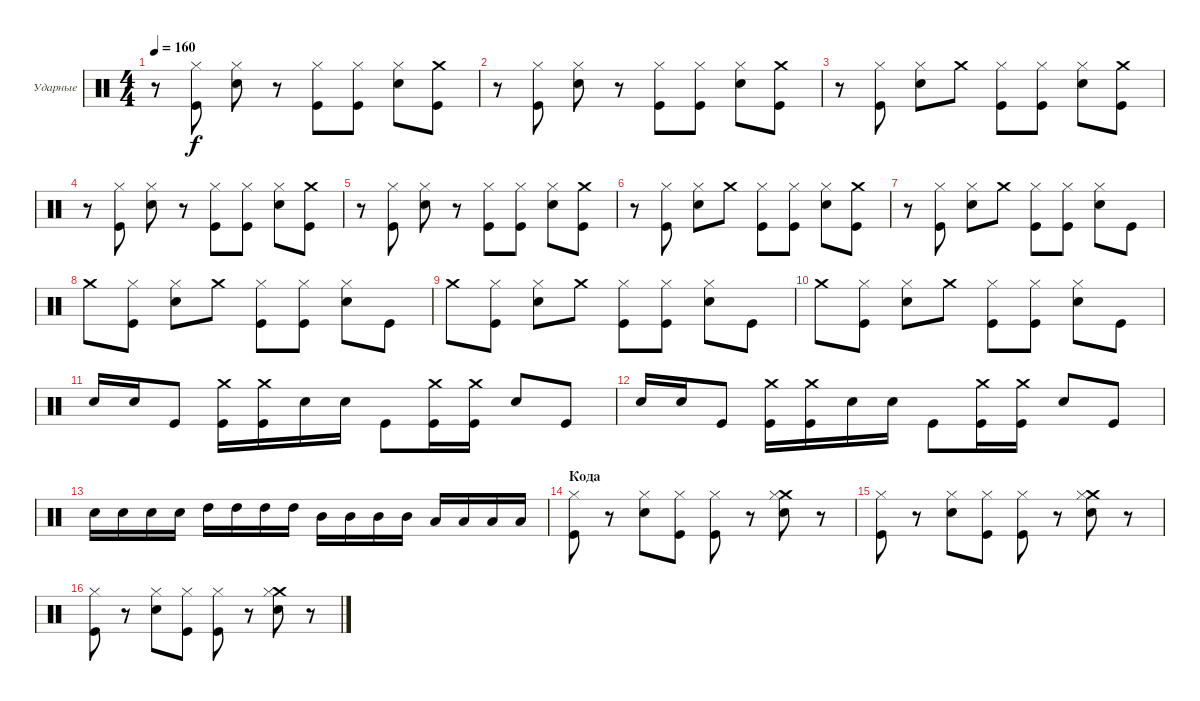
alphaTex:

\bracketExtendMode groupsimilarinstruments
\firstSystemTrackNameOrientation horizontal
\otherSystemsTrackNameOrientation horizontal
\track ("Александр Львов" "Ударные") {instrument percussion}
\staff {score}
\articulation defaults
\ts (4 4)
\tempo 160
\clef neutral
\ks c
r.8{dy f} ("Kick (hit)" "Hi-Hat (closed)").8 ("Snare (hit) 2" "Hi-Hat (closed)").8 r.8 ("Kick (hit)" "Hi-Hat (closed)").8 ("Kick (hit)" "Hi-Hat (closed)").8 ("Snare (hit) 2" "Hi-Hat (closed)").8 ("Kick (hit)" "Crash medium (hit)").8 |
r.8 ("Kick (hit)" "Hi-Hat (closed)").8 ("Snare (hit) 2" "Hi-Hat (closed)").8 r.8 ("Kick (hit)" "Hi-Hat (closed)").8 ("Kick (hit)" "Hi-Hat (closed)").8 ("Snare (hit) 2" "Hi-Hat (closed)").8 ("Kick (hit)" "Crash medium (hit)").8 |
r.8 ("Kick (hit)" "Hi-Hat (closed)").8 ("Snare (hit) 2" "Hi-Hat (closed)").8 "Crash medium (hit)".8 ("Kick (hit)" "Hi-Hat (closed)").8 ("Kick (hit)" "Hi-Hat (closed)").8 ("Snare (hit) 2" "Hi-Hat (closed)").8 ("Kick (hit)" "Crash medium (hit)").8 |
r.8 ("Kick (hit)" "Hi-Hat (closed)").8 ("Snare (hit) 2" "Hi-Hat (closed)").8 r.8 ("Kick (hit)" "Hi-Hat (closed)").8 ("Kick (hit)" "Hi-Hat (closed)").8 ("Snare (hit) 2" "Hi-Hat (closed)").8 ("Kick (hit)" "Crash medium (hit)").8 |
r.8 ("Kick (hit)" "Hi-Hat (closed)").8 ("Snare (hit) 2" "Hi-Hat (closed)").8 r.8 ("Kick (hit)" "Hi-Hat (closed)").8 ("Kick (hit)" "Hi-Hat (closed)").8 ("Snare (hit) 2" "Hi-Hat (closed)").8 ("Kick (hit)" "Crash medium (hit)").8 |
r.8 ("Kick (hit)" "Hi-Hat (closed)").8 ("Snare (hit) 2" "Hi-Hat (closed)").8 "Crash medium (hit)".8 ("Kick (hit)" "Hi-Hat (closed)").8 ("Kick (hit)" "Hi-Hat (closed)").8 ("Snare (hit) 2" "Hi-Hat (closed)").8 ("Kick (hit)" "Crash medium (hit)").8 |
r.8 ("Kick (hit)" "Hi-Hat (closed)").8 ("Snare (hit) 2" "Hi-Hat (closed)").8 "Crash medium (hit)".8 ("Kick (hit)" "Hi-Hat (closed)").8 ("Kick (hit)" "Hi-Hat (closed)").8 ("Snare (hit) 2" "Hi-Hat (closed)").8 "Kick (hit)".8 |
"Crash medium (hit)".8 ("Kick (hit)" "Hi-Hat (closed)").8 ("Snare (hit) 2" "Hi-Hat (closed)").8 "Crash medium (hit)".8 ("Kick (hit)" "Hi-Hat (closed)").8 ("Kick (hit)" "Hi-Hat (closed)").8 ("Snare (hit) 2" "Hi-Hat (closed)").8 "Kick (hit)".8 |
"Crash medium (hit)".8 ("Kick (hit)" "Hi-Hat (closed)").8 ("Snare (hit) 2" "Hi-Hat (closed)").8 "Crash medium (hit)".8 ("Kick (hit)" "Hi-Hat (closed)").8 ("Kick (hit)" "Hi-Hat (closed)").8 ("Snare (hit) 2" "Hi-Hat (closed)").8 "Kick (hit)".8 |
"Crash medium (hit)".8 ("Kick (hit)" "Hi-Hat (closed)").8 ("Snare (hit) 2" "Hi-Hat (closed)").8 "Crash medium (hit)".8 ("Kick (hit)" "Hi-Hat (closed)").8 ("Kick (hit)" "Hi-Hat (closed)").8 ("Snare (hit) 2" "Hi-Hat (closed)").8 "Kick (hit)".8 |
"Snare (hit) 2".16 "Snare (hit) 2".16 "Kick (hit)".8 ("Kick (hit)" "Crash medium (hit)").16 ("Kick (hit)" "Crash medium (hit)").16 "Snare (hit) 2".16 "Snare (hit) 2".16 "Kick (hit)".8 ("Kick (hit)" "Crash medium (hit)").16 ("Kick (hit)" "Crash medium (hit)").16 "Snare (hit) 2".8 "Kick (hit)".8 |
"Snare (hit) 2".16 "Snare (hit) 2".16 "Kick (hit)".8 ("Kick (hit)" "Crash medium (hit)").16 ("Kick (hit)" "Crash medium (hit)").16 "Snare (hit) 2".16 "Snare (hit) 2".16 "Kick (hit)".8 ("Kick (hit)" "Crash medium (hit)").16 ("Kick (hit)" "Crash medium (hit)").16 "Snare (hit) 2".8 "Kick (hit)".8 |
"Snare (hit) 2".16 "Snare (hit) 2".16 "Snare (hit) 2".16 "Snare (hit) 2".16 "High Tom (hit)".16 "High Tom (hit)".16 "High Tom (hit)".16 "High Tom (hit)".16 "Mid Tom (hit)".16 "Mid Tom (hit)".16 "Mid Tom (hit)".16 "Mid Tom (hit)".16 "Low Tom (hit)".16 "Low Tom (hit)".16 "Low Tom (hit)".16 "Low Tom (hit)".16 |
\section ("" "Кода")
("Kick (hit)" "Hi-Hat (closed)").8 r.8 ("Snare (hit) 2" "Hi-Hat (closed)").8 ("Kick (hit)" "Hi-Hat (closed)").8 ("Kick (hit)" "Hi-Hat (closed)").8 r.8 ("Snare (hit) 2" "Crash medium (hit)" "Hi-Hat (closed)").8 r.8 |
("Kick (hit)" "Hi-Hat (closed)").8 r.8 ("Snare (hit) 2" "Hi-Hat (closed)").8 ("Kick (hit)" "Hi-Hat (closed)").8 ("Kick (hit)" "Hi-Hat (closed)").8 r.8 ("Snare (hit) 2" "Crash medium (hit)" "Hi-Hat (closed)").8 r.8 |
("Kick (hit)" "Hi-Hat (closed)").8 r.8 ("Snare (hit) 2" "Hi-Hat (closed)").8 ("Kick (hit)" "Hi-Hat (closed)").8 ("Kick (hit)" "Hi-Hat (closed)").8 r.8 ("Snare (hit) 2" "Crash medium (hit)" "Hi-Hat (closed)").8 r.8
